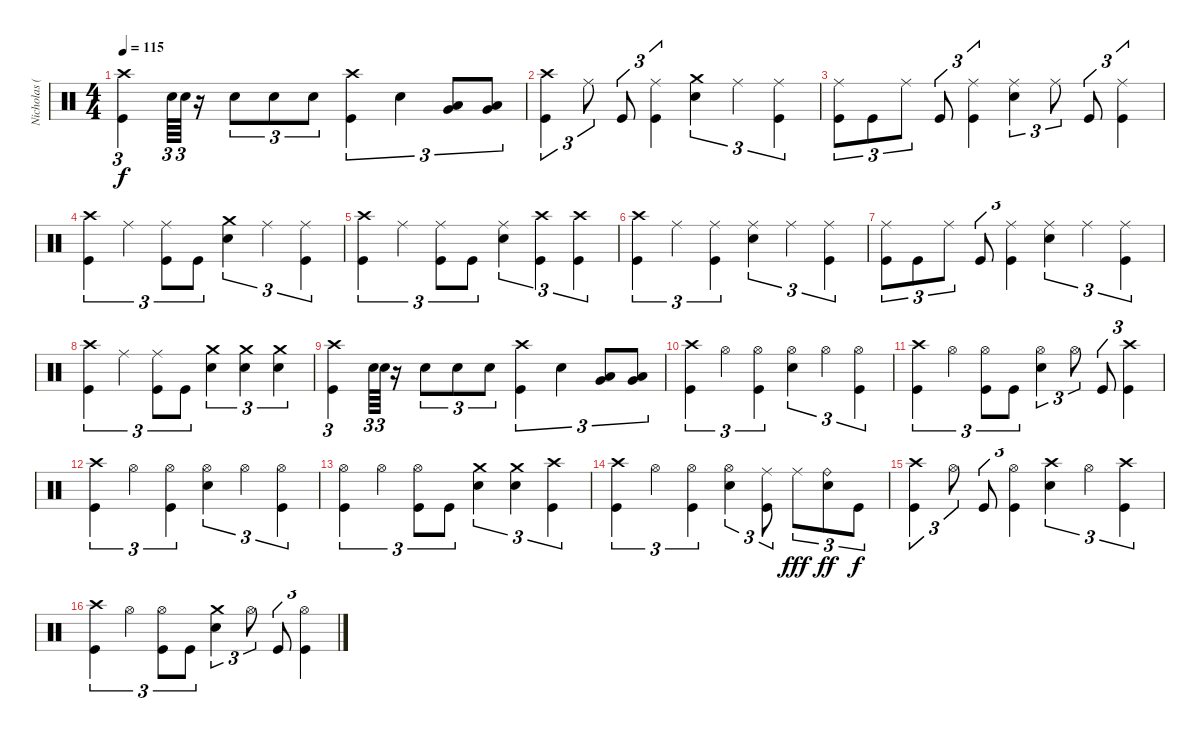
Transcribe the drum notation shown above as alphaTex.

\track ("Nicholas (Drums)" "Nicholas (") {instrument percussion}
\staff {score}
\articulation defaults
\ts (4 4)
\tempo 115
\clef neutral
\ks c
("Crash high (hit)" "Kick (hit)").4{tu (3 2) dy f} "Electric Snare (hit)".64{tu (3 2)} "Electric Snare (hit)".64{tu (3 2)} r.16 "Electric Snare (hit)".8{tu (3 2)} "Electric Snare (hit)".8{tu (3 2)} "Electric Snare (hit)".8{tu (3 2)} ("Crash high (hit)" "Kick (hit)").4{tu (3 2)} "Electric Snare (hit)".4{tu (3 2)} ("Low Tom (hit)" "Very Low Tom (hit)").8{tu (3 2) bu 60} ("Low Tom (hit)" "Very Low Tom (hit)").8{tu (3 2) bu 60} |
("Crash high (hit)" "Kick (hit)").4{tu (3 2)} "Ride (middle)".8{tu (3 2)} "Kick (hit)".8{tu (3 2)} ("Ride (middle)" "Kick (hit)").4{tu (3 2)} ("Crash medium (hit)" "Electric Snare (hit)").4{tu (3 2)} "Ride (middle)".4{tu (3 2)} ("Ride (middle)" "Kick (hit)").4{tu (3 2)} |
("Ride (middle)" "Kick (hit)").8{tu (3 2)} "Kick (hit)".8{tu (3 2)} "Ride (middle)".8{tu (3 2)} "Kick (hit)".8{tu (3 2)} ("Ride (middle)" "Kick (hit)").4{tu (3 2)} ("Ride (middle)" "Electric Snare (hit)").4{tu (3 2)} "Ride (middle)".8{tu (3 2)} "Kick (hit)".8{tu (3 2)} ("Ride (middle)" "Kick (hit)").4{tu (3 2)} |
("Crash high (hit)" "Kick (hit)").4{tu (3 2)} "Ride (middle)".4{tu (3 2)} ("Ride (middle)" "Kick (hit)").8{tu (3 2)} "Kick (hit)".8{tu (3 2)} ("Crash medium (hit)" "Electric Snare (hit)").4{tu (3 2)} "Ride (middle)".4{tu (3 2)} ("Ride (middle)" "Kick (hit)").4{tu (3 2)} |
("Crash high (hit)" "Kick (hit)").4{tu (3 2)} "Ride (middle)".4{tu (3 2)} ("Ride (middle)" "Kick (hit)").8{tu (3 2)} "Kick (hit)".8{tu (3 2)} ("Ride (middle)" "Electric Snare (hit)").4{tu (3 2)} ("Crash high (hit)" "Kick (hit)").4{tu (3 2)} ("Crash high (hit)" "Kick (hit)").4{tu (3 2)} |
("Crash high (hit)" "Kick (hit)").4{tu (3 2)} "Ride (middle)".4{tu (3 2)} ("Ride (middle)" "Kick (hit)").4{tu (3 2)} ("Ride (middle)" "Electric Snare (hit)").4{tu (3 2)} "Ride (middle)".4{tu (3 2)} ("Ride (middle)" "Kick (hit)").4{tu (3 2)} |
("Ride (middle)" "Kick (hit)").8{tu (3 2)} "Kick (hit)".8{tu (3 2)} "Ride (middle)".8{tu (3 2)} "Kick (hit)".8{tu (3 2)} ("Ride (middle)" "Kick (hit)").4{tu (3 2)} ("Ride (middle)" "Electric Snare (hit)").4{tu (3 2)} "Ride (middle)".4{tu (3 2)} ("Ride (middle)" "Kick (hit)").4{tu (3 2)} |
("Crash high (hit)" "Kick (hit)").4{tu (3 2)} "Ride (middle)".4{tu (3 2)} ("Ride (middle)" "Kick (hit)").8{tu (3 2)} "Kick (hit)".8{tu (3 2)} ("Crash medium (hit)" "Electric Snare (hit)").4{tu (3 2)} ("Crash medium (hit)" "Electric Snare (hit)").4{tu (3 2)} ("Crash medium (hit)" "Electric Snare (hit)").4{tu (3 2)} |
("Crash high (hit)" "Kick (hit)").4{tu (3 2)} "Electric Snare (hit)".64{tu (3 2)} "Electric Snare (hit)".64{tu (3 2)} r.16 "Electric Snare (hit)".8{tu (3 2)} "Electric Snare (hit)".8{tu (3 2)} "Electric Snare (hit)".8{tu (3 2)} ("Crash high (hit)" "Kick (hit)").4{tu (3 2)} "Electric Snare (hit)".4{tu (3 2)} ("Low Tom (hit)" "Very Low Tom (hit)").8{tu (3 2) bu 60} ("Low Tom (hit)" "Very Low Tom (hit)").8{tu (3 2) bu 60} |
("Crash high (hit)" "Kick (hit)").4{tu (3 2)} "Hi-Hat (open)".4{tu (3 2)} ("Hi-Hat (open)" "Kick (hit)").4{tu (3 2)} ("Hi-Hat (open)" "Electric Snare (hit)").4{tu (3 2)} "Hi-Hat (open)".4{tu (3 2)} ("Hi-Hat (open)" "Kick (hit)").4{tu (3 2)} |
("Crash high (hit)" "Kick (hit)").4{tu (3 2)} "Hi-Hat (open)".4{tu (3 2)} ("Hi-Hat (open)" "Kick (hit)").8{tu (3 2)} "Kick (hit)".8{tu (3 2)} ("Hi-Hat (open)" "Electric Snare (hit)").4{tu (3 2)} "Hi-Hat (open)".8{tu (3 2)} "Kick (hit)".8{tu (3 2)} ("Crash high (hit)" "Kick (hit)").4{tu (3 2)} |
("Crash high (hit)" "Kick (hit)").4{tu (3 2)} "Hi-Hat (open)".4{tu (3 2)} ("Hi-Hat (open)" "Kick (hit)").4{tu (3 2)} ("Hi-Hat (open)" "Electric Snare (hit)").4{tu (3 2)} "Hi-Hat (open)".4{tu (3 2)} ("Hi-Hat (open)" "Kick (hit)").4{tu (3 2)} |
("Hi-Hat (open)" "Kick (hit)").4{tu (3 2)} "Hi-Hat (open)".4{tu (3 2)} ("Hi-Hat (open)" "Kick (hit)").8{tu (3 2)} "Kick (hit)".8{tu (3 2)} ("Crash medium (hit)" "Electric Snare (hit)").4{tu (3 2)} ("Crash medium (hit)" "Electric Snare (hit)").4{tu (3 2)} ("Crash high (hit)" "Kick (hit)").4{tu (3 2)} |
("Crash high (hit)" "Kick (hit)").4{tu (3 2)} "Hi-Hat (open)".4{tu (3 2)} ("Hi-Hat (open)" "Kick (hit)").4{tu (3 2)} ("Hi-Hat (open)" "Electric Snare (hit)").4{tu (3 2)} ("Ride (middle)" "Kick (hit)").8{tu (3 2)} "Ride (middle)".8{tu (3 2) dy fff} ("Ride (bell)" "Electric Snare (hit)").8{tu (3 2) dy ff} "Kick (hit)".8{tu (3 2) dy f} |
("Crash high (hit)" "Kick (hit)").4{tu (3 2)} "Hi-Hat (open)".8{tu (3 2)} "Kick (hit)".8{tu (3 2)} ("Hi-Hat (open)" "Kick (hit)").4{tu (3 2)} ("Crash high (hit)" "Electric Snare (hit)").4{tu (3 2)} "Hi-Hat (open)".4{tu (3 2)} ("Crash high (hit)" "Kick (hit)").4{tu (3 2)} |
("Crash high (hit)" "Kick (hit)").4{tu (3 2)} "Hi-Hat (open)".4{tu (3 2)} ("Hi-Hat (open)" "Kick (hit)").8{tu (3 2)} "Kick (hit)".8{tu (3 2)} ("Crash medium (hit)" "Electric Snare (hit)").4{tu (3 2)} "Hi-Hat (open)".8{tu (3 2)} "Kick (hit)".8{tu (3 2)} ("Hi-Hat (open)" "Kick (hit)").4{tu (3 2)}
